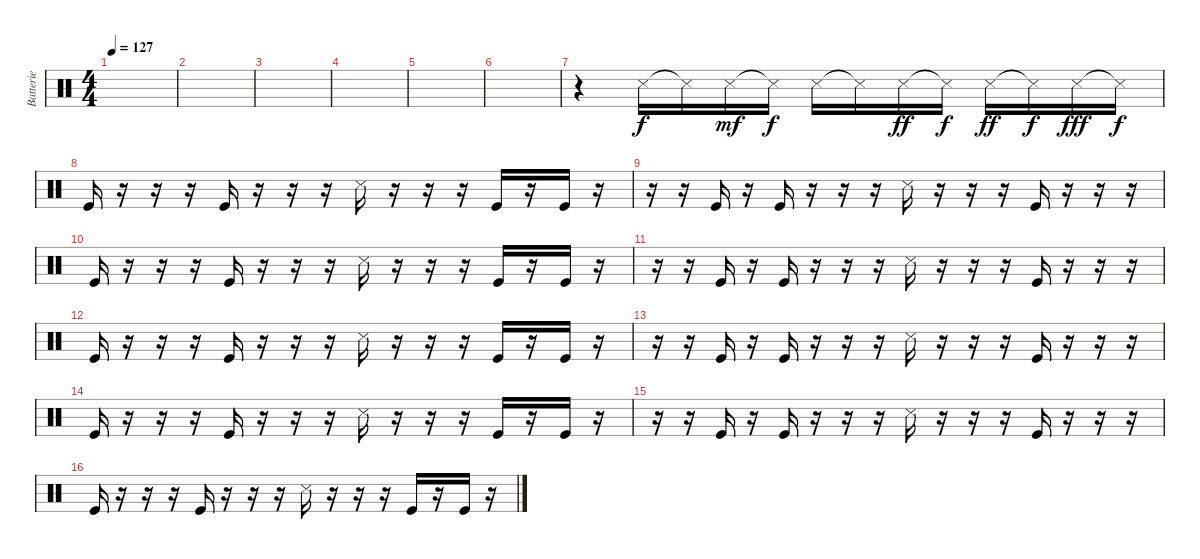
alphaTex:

\track ("Batterie" "Batterie") {instrument percussion}
\staff {score}
\articulation defaults
\ts (4 4)
\tempo 127
\clef neutral
\ks c
|
|
|
|
|
|
r.4 "Metronome (hit)".16 "Metronome (hit)"{t}.16{dy f} "Metronome (hit)".16{dy mf} "Metronome (hit)"{t}.16{dy f} "Metronome (hit)".16 "Metronome (hit)"{t}.16 "Metronome (hit)".16{dy ff} "Metronome (hit)"{t}.16{dy f} "Metronome (hit)".16{dy ff} "Metronome (hit)"{t}.16{dy f} "Metronome (hit)".16{dy fff} "Metronome (hit)"{t}.16{dy f} |
"Kick (hit)".16 r.16 r.16 r.16 "Kick (hit)".16 r.16 r.16 r.16 "Snare (side stick) 3".16 r.16 r.16 r.16 "Kick (hit)".16 r.16 "Kick (hit)".16 r.16 |
r.16 r.16 "Kick (hit)".16 r.16 "Kick (hit)".16 r.16 r.16 r.16 "Snare (side stick) 3".16 r.16 r.16 r.16 "Kick (hit)".16 r.16 r.16 r.16 |
"Kick (hit)".16 r.16 r.16 r.16 "Kick (hit)".16 r.16 r.16 r.16 "Snare (side stick) 3".16 r.16 r.16 r.16 "Kick (hit)".16 r.16 "Kick (hit)".16 r.16 |
r.16 r.16 "Kick (hit)".16 r.16 "Kick (hit)".16 r.16 r.16 r.16 "Snare (side stick) 3".16 r.16 r.16 r.16 "Kick (hit)".16 r.16 r.16 r.16 |
"Kick (hit)".16 r.16 r.16 r.16 "Kick (hit)".16 r.16 r.16 r.16 "Snare (side stick) 3".16 r.16 r.16 r.16 "Kick (hit)".16 r.16 "Kick (hit)".16 r.16 |
r.16 r.16 "Kick (hit)".16 r.16 "Kick (hit)".16 r.16 r.16 r.16 "Snare (side stick) 3".16 r.16 r.16 r.16 "Kick (hit)".16 r.16 r.16 r.16 |
"Kick (hit)".16 r.16 r.16 r.16 "Kick (hit)".16 r.16 r.16 r.16 "Snare (side stick) 3".16 r.16 r.16 r.16 "Kick (hit)".16 r.16 "Kick (hit)".16 r.16 |
r.16 r.16 "Kick (hit)".16 r.16 "Kick (hit)".16 r.16 r.16 r.16 "Snare (side stick) 3".16 r.16 r.16 r.16 "Kick (hit)".16 r.16 r.16 r.16 |
"Kick (hit)".16 r.16 r.16 r.16 "Kick (hit)".16 r.16 r.16 r.16 "Snare (side stick) 3".16 r.16 r.16 r.16 "Kick (hit)".16 r.16 "Kick (hit)".16 r.16
